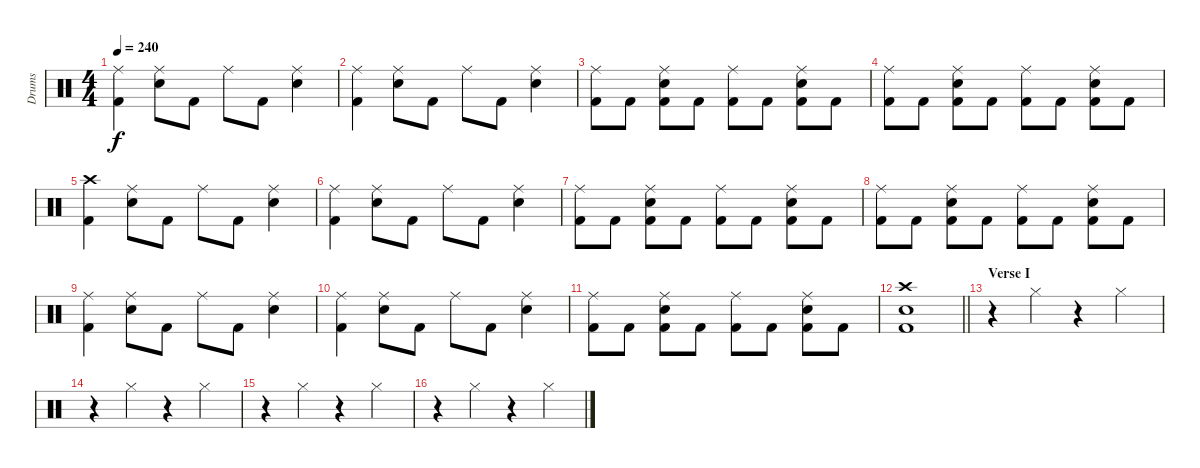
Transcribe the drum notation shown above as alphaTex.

\track ("Drums" "Drums") {instrument percussion}
\staff {score}
\articulation defaults
\ts (4 4)
\tempo 240
\clef neutral
\ks c
("Ride (middle)" "Kick (hit) 2").4{dy f} ("Ride (middle)" "Snare (hit) 2").8 "Kick (hit) 2".8 "Ride (middle)".8 "Kick (hit) 2".8 ("Ride (middle)" "Snare (hit) 2").4 |
("Ride (middle)" "Kick (hit) 2").4 ("Ride (middle)" "Snare (hit) 2").8 "Kick (hit) 2".8 "Ride (middle)".8 "Kick (hit) 2".8 ("Ride (middle)" "Snare (hit) 2").4 |
("Ride (middle)" "Kick (hit) 2").8 "Kick (hit) 2".8 ("Ride (middle)" "Snare (hit) 2" "Kick (hit) 2").8 "Kick (hit) 2".8 ("Ride (middle)" "Kick (hit) 2").8 "Kick (hit) 2".8 ("Ride (middle)" "Snare (hit) 2" "Kick (hit) 2").8 "Kick (hit) 2".8 |
("Ride (middle)" "Kick (hit) 2").8 "Kick (hit) 2".8 ("Ride (middle)" "Snare (hit) 2" "Kick (hit) 2").8 "Kick (hit) 2".8 ("Ride (middle)" "Kick (hit) 2").8 "Kick (hit) 2".8 ("Ride (middle)" "Snare (hit) 2" "Kick (hit) 2").8 "Kick (hit) 2".8 |
("Crash high (hit)" "Kick (hit) 2").4 ("Ride (middle)" "Snare (hit) 2").8 "Kick (hit) 2".8 "Ride (middle)".8 "Kick (hit) 2".8 ("Ride (middle)" "Snare (hit) 2").4 |
("Ride (middle)" "Kick (hit) 2").4 ("Ride (middle)" "Snare (hit) 2").8 "Kick (hit) 2".8 "Ride (middle)".8 "Kick (hit) 2".8 ("Ride (middle)" "Snare (hit) 2").4 |
("Ride (middle)" "Kick (hit) 2").8 "Kick (hit) 2".8 ("Ride (middle)" "Snare (hit) 2" "Kick (hit) 2").8 "Kick (hit) 2".8 ("Ride (middle)" "Kick (hit) 2").8 "Kick (hit) 2".8 ("Ride (middle)" "Snare (hit) 2" "Kick (hit) 2").8 "Kick (hit) 2".8 |
("Ride (middle)" "Kick (hit) 2").8 "Kick (hit) 2".8 ("Ride (middle)" "Snare (hit) 2" "Kick (hit) 2").8 "Kick (hit) 2".8 ("Ride (middle)" "Kick (hit) 2").8 "Kick (hit) 2".8 ("Ride (middle)" "Snare (hit) 2" "Kick (hit) 2").8 "Kick (hit) 2".8 |
("Ride (middle)" "Kick (hit) 2").4 ("Ride (middle)" "Snare (hit) 2").8 "Kick (hit) 2".8 "Ride (middle)".8 "Kick (hit) 2".8 ("Ride (middle)" "Snare (hit) 2").4 |
("Ride (middle)" "Kick (hit) 2").4 ("Ride (middle)" "Snare (hit) 2").8 "Kick (hit) 2".8 "Ride (middle)".8 "Kick (hit) 2".8 ("Ride (middle)" "Snare (hit) 2").4 |
("Ride (middle)" "Kick (hit) 2").8 "Kick (hit) 2".8 ("Ride (middle)" "Snare (hit) 2" "Kick (hit) 2").8 "Kick (hit) 2".8 ("Ride (middle)" "Kick (hit) 2").8 "Kick (hit) 2".8 ("Ride (middle)" "Snare (hit) 2" "Kick (hit) 2").8 "Kick (hit) 2".8 |
\barLineRight lightlight
("Crash high (hit)" "Snare (hit) 2" "Kick (hit) 2").1 |
\section ("" "Verse I")
r.4 "Hi-Hat (closed)".4 r.4 "Hi-Hat (closed)".4 |
r.4 "Hi-Hat (closed)".4 r.4 "Hi-Hat (closed)".4 |
r.4 "Hi-Hat (closed)".4 r.4 "Hi-Hat (closed)".4 |
r.4 "Hi-Hat (closed)".4 r.4 "Hi-Hat (closed)".4
